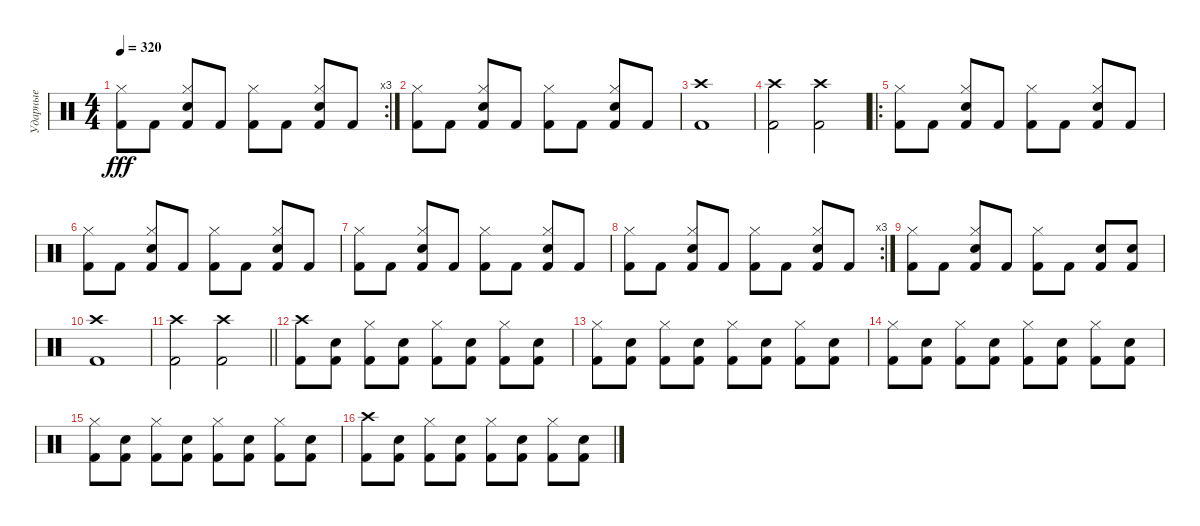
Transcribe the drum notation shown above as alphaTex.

\track ("Ударные" "Ударные") {instrument percussion}
\staff {score}
\articulation defaults
\rc 3
\ts (4 4)
\tempo 320
\clef neutral
\ks c
("Kick (hit) 2" "Hi-Hat (closed)").8{dy fff} "Kick (hit) 2".8 ("Kick (hit) 2" "Snare (hit) 2" "Hi-Hat (closed)").8 "Kick (hit) 2".8 ("Kick (hit) 2" "Hi-Hat (closed)").8 "Kick (hit) 2".8 ("Kick (hit) 2" "Snare (hit) 2" "Hi-Hat (closed)").8 "Kick (hit) 2".8 |
("Kick (hit) 2" "Hi-Hat (closed)").8 "Kick (hit) 2".8 ("Kick (hit) 2" "Snare (hit) 2" "Hi-Hat (closed)").8 "Kick (hit) 2".8 ("Kick (hit) 2" "Hi-Hat (closed)").8 "Kick (hit) 2".8 ("Kick (hit) 2" "Snare (hit) 2" "Hi-Hat (closed)").8 "Kick (hit) 2".8 |
("Kick (hit) 2" "Crash high (hit)").1 |
("Kick (hit) 2" "Crash high (hit)").2 ("Kick (hit) 2" "Crash high (hit)").2 |
\ro
("Kick (hit) 2" "Hi-Hat (closed)").8 "Kick (hit) 2".8 ("Kick (hit) 2" "Snare (hit) 2" "Hi-Hat (closed)").8 "Kick (hit) 2".8 ("Kick (hit) 2" "Hi-Hat (closed)").8 "Kick (hit) 2".8 ("Kick (hit) 2" "Snare (hit) 2" "Hi-Hat (closed)").8 "Kick (hit) 2".8 |
("Kick (hit) 2" "Hi-Hat (closed)").8 "Kick (hit) 2".8 ("Kick (hit) 2" "Snare (hit) 2" "Hi-Hat (closed)").8 "Kick (hit) 2".8 ("Kick (hit) 2" "Hi-Hat (closed)").8 "Kick (hit) 2".8 ("Kick (hit) 2" "Snare (hit) 2" "Hi-Hat (closed)").8 "Kick (hit) 2".8 |
("Kick (hit) 2" "Hi-Hat (closed)").8 "Kick (hit) 2".8 ("Kick (hit) 2" "Snare (hit) 2" "Hi-Hat (closed)").8 "Kick (hit) 2".8 ("Kick (hit) 2" "Hi-Hat (closed)").8 "Kick (hit) 2".8 ("Kick (hit) 2" "Snare (hit) 2" "Hi-Hat (closed)").8 "Kick (hit) 2".8 |
\rc 3
("Kick (hit) 2" "Hi-Hat (closed)").8 "Kick (hit) 2".8 ("Kick (hit) 2" "Snare (hit) 2" "Hi-Hat (closed)").8 "Kick (hit) 2".8 ("Kick (hit) 2" "Hi-Hat (closed)").8 "Kick (hit) 2".8 ("Kick (hit) 2" "Snare (hit) 2" "Hi-Hat (closed)").8 "Kick (hit) 2".8 |
("Kick (hit) 2" "Hi-Hat (closed)").8 "Kick (hit) 2".8 ("Kick (hit) 2" "Snare (hit) 2" "Hi-Hat (closed)").8 "Kick (hit) 2".8 ("Kick (hit) 2" "Hi-Hat (closed)").8 "Kick (hit) 2".8 ("Kick (hit) 2" "Snare (hit) 2").8 ("Kick (hit) 2" "Snare (hit) 2").8 |
("Kick (hit) 2" "Crash high (hit)").1 |
\barLineRight lightlight
("Kick (hit) 2" "Crash high (hit)").2 ("Kick (hit) 2" "Crash high (hit)").2 |
("Kick (hit) 2" "Crash high (hit)").8 ("Kick (hit) 2" "Snare (hit) 2").8 ("Kick (hit) 2" "Hi-Hat (closed)").8 ("Kick (hit) 2" "Snare (hit) 2").8 ("Kick (hit) 2" "Hi-Hat (closed)").8 ("Kick (hit) 2" "Snare (hit) 2").8 ("Kick (hit) 2" "Hi-Hat (closed)").8 ("Kick (hit) 2" "Snare (hit) 2").8 |
("Kick (hit) 2" "Hi-Hat (closed)").8 ("Kick (hit) 2" "Snare (hit) 2").8 ("Kick (hit) 2" "Hi-Hat (closed)").8 ("Kick (hit) 2" "Snare (hit) 2").8 ("Kick (hit) 2" "Hi-Hat (closed)").8 ("Kick (hit) 2" "Snare (hit) 2").8 ("Kick (hit) 2" "Hi-Hat (closed)").8 ("Kick (hit) 2" "Snare (hit) 2").8 |
("Kick (hit) 2" "Hi-Hat (closed)").8 ("Kick (hit) 2" "Snare (hit) 2").8 ("Kick (hit) 2" "Hi-Hat (closed)").8 ("Kick (hit) 2" "Snare (hit) 2").8 ("Kick (hit) 2" "Hi-Hat (closed)").8 ("Kick (hit) 2" "Snare (hit) 2").8 ("Kick (hit) 2" "Hi-Hat (closed)").8 ("Kick (hit) 2" "Snare (hit) 2").8 |
("Kick (hit) 2" "Hi-Hat (closed)").8 ("Kick (hit) 2" "Snare (hit) 2").8 ("Kick (hit) 2" "Hi-Hat (closed)").8 ("Kick (hit) 2" "Snare (hit) 2").8 ("Kick (hit) 2" "Hi-Hat (closed)").8 ("Kick (hit) 2" "Snare (hit) 2").8 ("Kick (hit) 2" "Hi-Hat (closed)").8 ("Kick (hit) 2" "Snare (hit) 2").8 |
("Kick (hit) 2" "Crash high (hit)").8 ("Kick (hit) 2" "Snare (hit) 2").8 ("Kick (hit) 2" "Hi-Hat (closed)").8 ("Kick (hit) 2" "Snare (hit) 2").8 ("Kick (hit) 2" "Hi-Hat (closed)").8 ("Kick (hit) 2" "Snare (hit) 2").8 ("Kick (hit) 2" "Hi-Hat (closed)").8 ("Kick (hit) 2" "Snare (hit) 2").8
